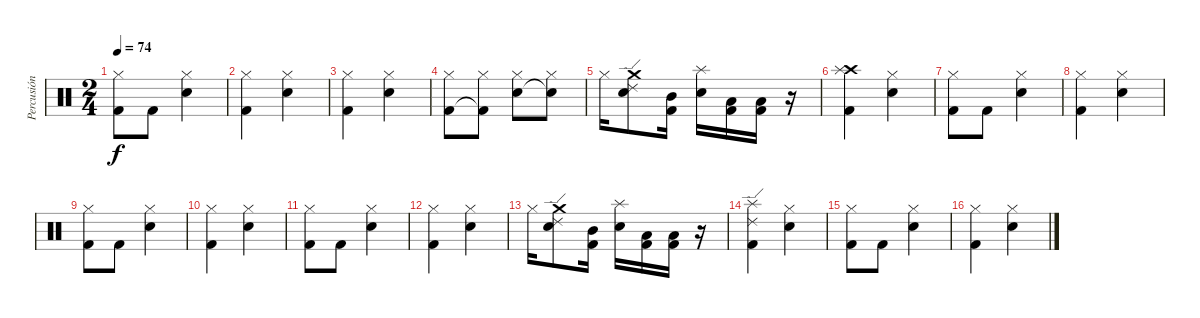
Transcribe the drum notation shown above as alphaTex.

\track ("Percusión" "Percusión") {instrument percussion}
\staff {score}
\articulation defaults
\ts (2 4)
\tempo 74
\clef neutral
\ks c
("Hi-Hat (closed)" "Kick (hit) 2").8{dy f} "Kick (hit) 2".8 ("Hi-Hat (closed)" "Electric Snare (hit)").4 |
("Hi-Hat (closed)" "Kick (hit) 2").4 ("Hi-Hat (closed)" "Electric Snare (hit)").4 |
("Hi-Hat (closed)" "Kick (hit) 2").4 ("Hi-Hat (closed)" "Electric Snare (hit)").4 |
("Hi-Hat (closed)" "Kick (hit) 2").8 ("Hi-Hat (closed)" "Kick (hit) 2"{t}).8 ("Hi-Hat (closed)" "Electric Snare (hit)").8 ("Hi-Hat (closed)" "Snare (hit)"{t}).8 |
"Hi-Hat (closed)".16 ("Ride (edge) 2" "Crash medium (hit)" "Electric Snare (hit)").8 ("Mid Tom (hit)" "Kick (hit) 2").16 ("Splash (hit)" "Electric Snare (hit)").16 ("Low Tom (hit)" "Kick (hit) 2").16 ("Low Tom (hit)" "Kick (hit) 2").16 r.16 |
("Crash high (hit)" "Splash (hit)" "Kick (hit) 2").4 ("Hi-Hat (closed)" "Electric Snare (hit)").4 |
("Hi-Hat (closed)" "Kick (hit) 2").8 "Kick (hit) 2".8 ("Hi-Hat (closed)" "Electric Snare (hit)").4 |
("Hi-Hat (closed)" "Kick (hit) 2").4 ("Hi-Hat (closed)" "Electric Snare (hit)").4 |
("Hi-Hat (closed)" "Kick (hit) 2").8 "Kick (hit) 2".8 ("Hi-Hat (closed)" "Electric Snare (hit)").4 |
("Hi-Hat (closed)" "Kick (hit) 2").4 ("Hi-Hat (closed)" "Electric Snare (hit)").4 |
("Hi-Hat (closed)" "Kick (hit) 2").8 "Kick (hit) 2".8 ("Hi-Hat (closed)" "Electric Snare (hit)").4 |
("Hi-Hat (closed)" "Kick (hit) 2").4 ("Hi-Hat (closed)" "Electric Snare (hit)").4 |
"Hi-Hat (closed)".16 ("Ride (edge) 2" "Crash medium (hit)" "Electric Snare (hit)").8 ("Mid Tom (hit)" "Kick (hit) 2").16 ("Splash (hit)" "Electric Snare (hit)").16 ("Low Tom (hit)" "Kick (hit) 2").16 ("Low Tom (hit)" "Kick (hit) 2").16 r.16 |
("Splash (hit)" "Ride (edge) 2" "Kick (hit) 2").4 ("Hi-Hat (closed)" "Electric Snare (hit)").4 |
("Hi-Hat (closed)" "Kick (hit) 2").8 "Kick (hit) 2".8 ("Hi-Hat (closed)" "Electric Snare (hit)").4 |
("Hi-Hat (closed)" "Kick (hit) 2").4 ("Hi-Hat (closed)" "Electric Snare (hit)").4
